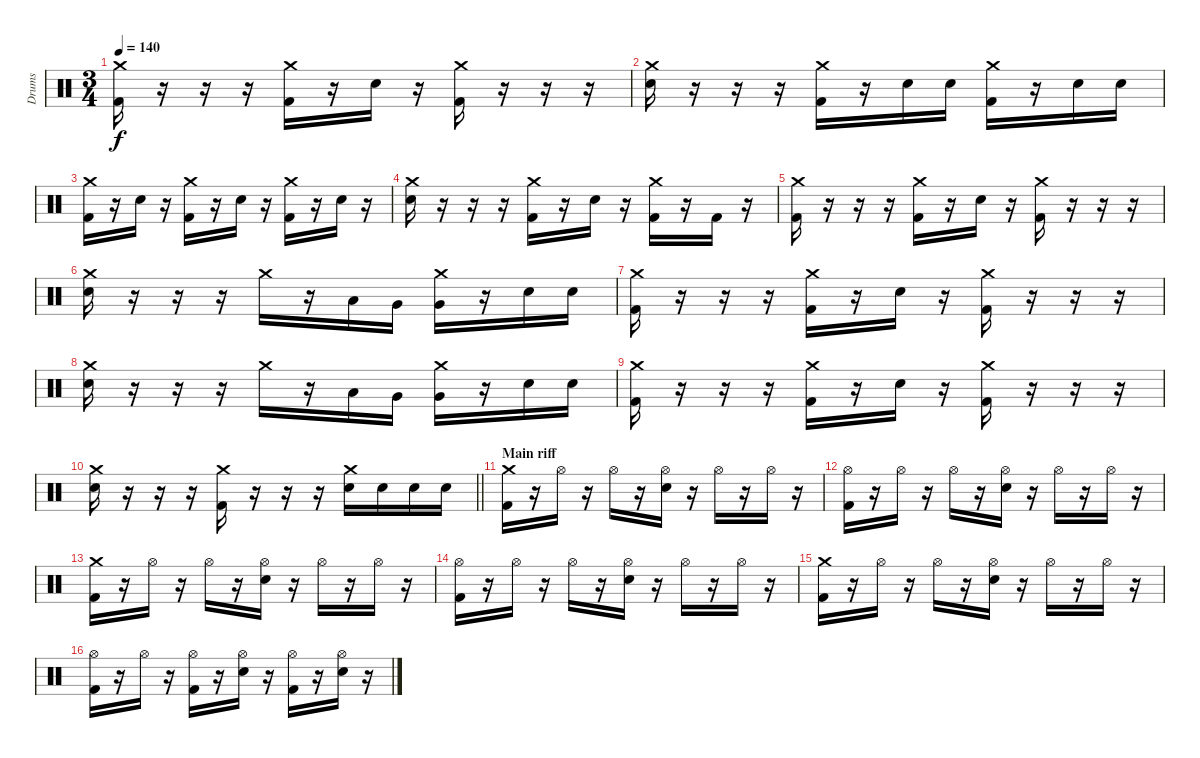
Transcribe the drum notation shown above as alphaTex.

\track ("Drums" "Drums") {instrument percussion}
\staff {score}
\articulation defaults
\ts (3 4)
\tempo 140
\clef neutral
\ks c
("Crash medium (hit)" "Kick (hit) 2").16{dy f} r.16 r.16 r.16 ("Crash medium (hit)" "Kick (hit) 2").16 r.16 "Electric Snare (hit)".16 r.16 ("Crash medium (hit)" "Kick (hit) 2").16 r.16 r.16 r.16 |
("Crash medium (hit)" "Electric Snare (hit)").16 r.16 r.16 r.16 ("Crash medium (hit)" "Kick (hit) 2").16 r.16 "Electric Snare (hit)".16 "Electric Snare (hit)".16 ("Crash medium (hit)" "Kick (hit) 2").16 r.16 "Electric Snare (hit)".16 "Electric Snare (hit)".16 |
("Crash medium (hit)" "Kick (hit) 2").16 r.16 "Electric Snare (hit)".16 r.16 ("Crash medium (hit)" "Kick (hit) 2").16 r.16 "Electric Snare (hit)".16 r.16 ("Crash medium (hit)" "Kick (hit) 2").16 r.16 "Electric Snare (hit)".16 r.16 |
("Crash medium (hit)" "Electric Snare (hit)").16 r.16 r.16 r.16 ("Crash medium (hit)" "Kick (hit) 2").16 r.16 "Electric Snare (hit)".16 r.16 ("Crash medium (hit)" "Kick (hit) 2").16 r.16 "Kick (hit) 2".16 r.16 |
("Crash medium (hit)" "Kick (hit) 2").16 r.16 r.16 r.16 ("Crash medium (hit)" "Kick (hit) 2").16 r.16 "Electric Snare (hit)".16 r.16 ("Crash medium (hit)" "Kick (hit) 2").16 r.16 r.16 r.16 |
("Crash medium (hit)" "Electric Snare (hit)").16 r.16 r.16 r.16 "Crash medium (hit)".16 r.16 "Low Tom (hit)".16 "Very Low Tom (hit)".16 ("Crash medium (hit)" "Very Low Tom (hit)").16 r.16 "Electric Snare (hit)".16 "Electric Snare (hit)".16 |
("Crash medium (hit)" "Kick (hit) 2").16 r.16 r.16 r.16 ("Crash medium (hit)" "Kick (hit) 2").16 r.16 "Electric Snare (hit)".16 r.16 ("Crash medium (hit)" "Kick (hit) 2").16 r.16 r.16 r.16 |
("Crash medium (hit)" "Electric Snare (hit)").16 r.16 r.16 r.16 "Crash medium (hit)".16 r.16 "Low Tom (hit)".16 "Very Low Tom (hit)".16 ("Crash medium (hit)" "Very Low Tom (hit)").16 r.16 "Electric Snare (hit)".16 "Electric Snare (hit)".16 |
("Crash medium (hit)" "Kick (hit) 2").16 r.16 r.16 r.16 ("Crash medium (hit)" "Kick (hit) 2").16 r.16 "Electric Snare (hit)".16 r.16 ("Crash medium (hit)" "Kick (hit) 2").16 r.16 r.16 r.16 |
\barLineRight lightlight
("Crash medium (hit)" "Electric Snare (hit)").16 r.16 r.16 r.16 ("Crash medium (hit)" "Kick (hit) 2").16 r.16 r.16 r.16 ("Crash medium (hit)" "Electric Snare (hit)").16 "Electric Snare (hit)".16 "Electric Snare (hit)".16 "Electric Snare (hit)".16 |
\section ("" "Main riff")
("Crash medium (hit)" "Kick (hit) 2").16 r.16 "Hi-Hat (open)".16 r.16 "Hi-Hat (open)".16 r.16 ("Hi-Hat (open)" "Electric Snare (hit)").16 r.16 "Hi-Hat (open)".16 r.16 "Hi-Hat (open)".16 r.16 |
("Hi-Hat (open)" "Kick (hit) 2").16 r.16 "Hi-Hat (open)".16 r.16 "Hi-Hat (open)".16 r.16 ("Hi-Hat (open)" "Electric Snare (hit)").16 r.16 "Hi-Hat (open)".16 r.16 "Hi-Hat (open)".16 r.16 |
("Crash medium (hit)" "Kick (hit) 2").16 r.16 "Hi-Hat (open)".16 r.16 "Hi-Hat (open)".16 r.16 ("Hi-Hat (open)" "Electric Snare (hit)").16 r.16 "Hi-Hat (open)".16 r.16 "Hi-Hat (open)".16 r.16 |
("Hi-Hat (open)" "Kick (hit) 2").16 r.16 "Hi-Hat (open)".16 r.16 "Hi-Hat (open)".16 r.16 ("Hi-Hat (open)" "Electric Snare (hit)").16 r.16 "Hi-Hat (open)".16 r.16 "Hi-Hat (open)".16 r.16 |
("Crash medium (hit)" "Kick (hit) 2").16 r.16 "Hi-Hat (open)".16 r.16 "Hi-Hat (open)".16 r.16 ("Hi-Hat (open)" "Electric Snare (hit)").16 r.16 "Hi-Hat (open)".16 r.16 "Hi-Hat (open)".16 r.16 |
("Hi-Hat (open)" "Kick (hit) 2").16 r.16 "Hi-Hat (open)".16 r.16 ("Hi-Hat (open)" "Kick (hit) 2").16 r.16 ("Hi-Hat (open)" "Electric Snare (hit)").16 r.16 ("Hi-Hat (open)" "Kick (hit) 2").16 r.16 ("Hi-Hat (open)" "Electric Snare (hit)").16 r.16
